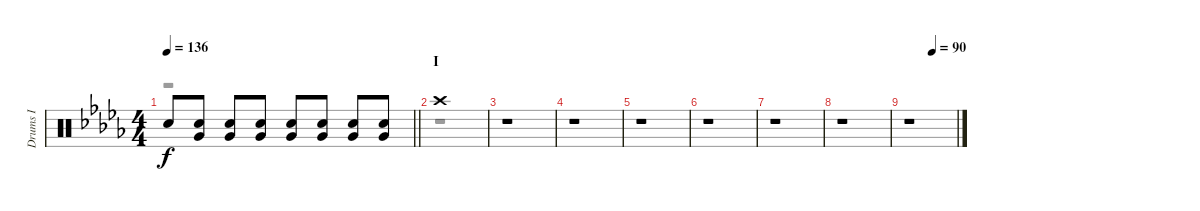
\track ("Drums I" "Drums I") {instrument percussion}
\staff {score}
\articulation defaults
\voice
\ts (4 4)
\tempo 136
\clef neutral
\barLineRight lightlight
\ks db "Snare (hit)"{t}.8{dy f}
("Snare (hit) 2" "Very Low Tom (hit)").8 ("Snare (hit) 2" "Very Low Tom (hit)").8 ("Snare (hit) 2" "Very Low Tom (hit)").8 ("Snare (hit) 2" "Very Low Tom (hit)").8 ("Snare (hit) 2" "Very Low Tom (hit)").8 ("Snare (hit) 2" "Very Low Tom (hit)").8 ("Snare (hit) 2" "Very Low Tom (hit)").8 |
\section ("" "I")
"Crash high (hit)".1 |
r.1 |
r.1 |
r.1 |
r.1 |
r.1 |
r.1 |
\tempo (90 0.5)
r.1
\voice
\clef neutral
\ottava regular
\simile none
\barLineRight lightlight
\ks db
r.1{dy fff} |
r.1 |
r.1 |
r.1 |
r.1 |
r.1 |
r.1 |
r.1 |
r.1
